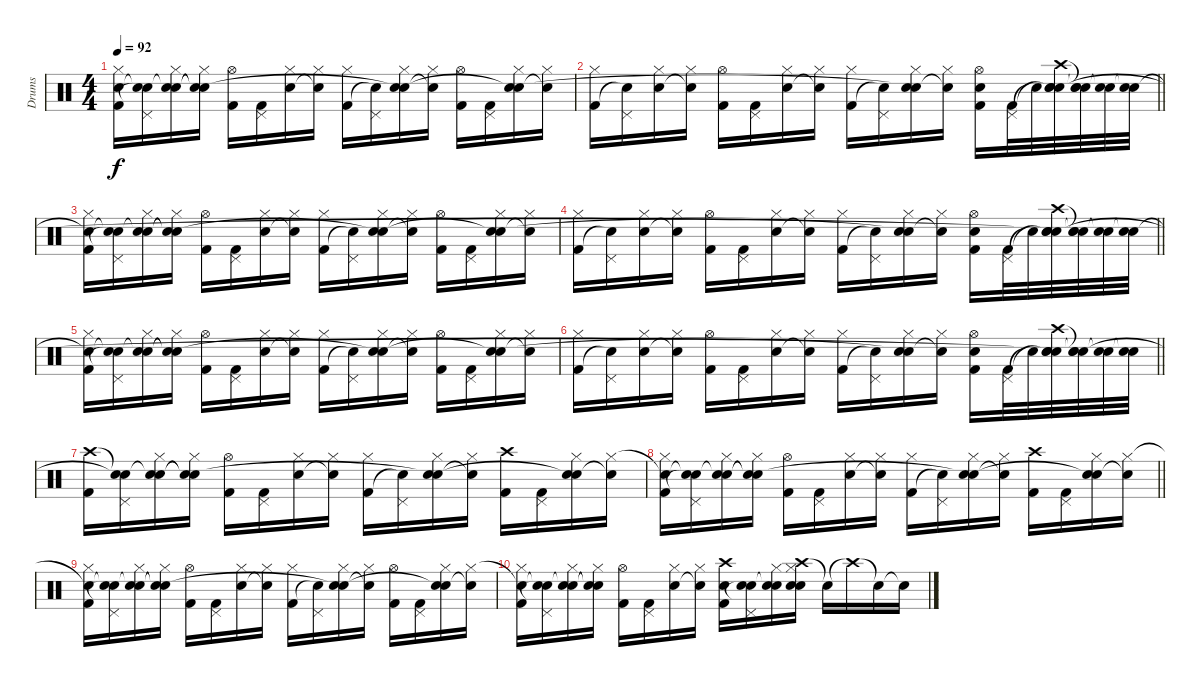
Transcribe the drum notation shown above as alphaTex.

\track ("Drums" "Drums") {instrument percussion}
\staff {score}
\articulation defaults
\ts (4 4)
\tempo 92
\clef neutral
\ks c
("Snare (hit)"{t} "Hi-Hat (closed)" "Kick (hit) 2").16{dy f} ("Snare (hit)"{t} "Pedal Hi-Hat (hit)" "Snare (hit)"{t}).16 ("Snare (hit)"{t} "Hi-Hat (closed)" "Electric Snare (hit)").16 ("Snare (hit)"{t} "Hi-Hat (closed)" "Snare (hit)"{t}).16 ("Hi-Hat (open)" "Kick (hit) 2").16 ("Pedal Hi-Hat (hit)" "Kick (hit) 2").16 ("Hi-Hat (closed)" "Electric Snare (hit)").16 ("Hi-Hat (closed)" "Snare (hit)"{t}).16 ("Hi-Hat (closed)" "Kick (hit) 2").16 ("Pedal Hi-Hat (hit)" "Snare (hit)"{t}).16 ("Hi-Hat (closed)" "Electric Snare (hit)" "Snare (hit)"{t}).16 ("Hi-Hat (closed)" "Snare (hit)"{t}).16 ("Hi-Hat (open)" "Kick (hit) 2").16 ("Pedal Hi-Hat (hit)" "Kick (hit) 2").16 ("Hi-Hat (closed)" "Electric Snare (hit)" "Snare (hit)"{t}).16 ("Hi-Hat (closed)" "Snare (hit)"{t}).16 |
\barLineRight lightlight
("Hi-Hat (closed)" "Kick (hit) 2").16 ("Pedal Hi-Hat (hit)" "Snare (hit)"{t}).16 ("Hi-Hat (closed)" "Electric Snare (hit)").16 ("Hi-Hat (closed)" "Snare (hit)"{t}).16 ("Hi-Hat (open)" "Kick (hit) 2").16 ("Pedal Hi-Hat (hit)" "Kick (hit) 2").16 ("Hi-Hat (closed)" "Electric Snare (hit)").16 ("Hi-Hat (closed)" "Snare (hit)"{t}).16 ("Hi-Hat (closed)" "Kick (hit) 2").16 ("Pedal Hi-Hat (hit)" "Snare (hit)"{t}).16 ("Hi-Hat (closed)" "Electric Snare (hit)" "Snare (hit)"{t}).16 ("Hi-Hat (closed)" "Snare (hit)"{t}).16 ("Hi-Hat (open)" "Electric Snare (hit)" "Kick (hit) 2").16 ("Pedal Hi-Hat (hit)" "Kick (hit) 2").32 "Snare (hit)"{t}.32 ("Crash high (hit)" "Snare (hit)"{t} "Electric Snare (hit)" "Snare (hit)").32 ("Snare (hit)"{t} "Electric Snare (hit)" "Snare (hit)"{t}).32 ("Snare (hit)"{t} "Electric Snare (hit)").32 ("Snare (hit)"{t} "Electric Snare (hit)").32 |
("Snare (hit)"{t} "Hi-Hat (closed)" "Kick (hit) 2").16 ("Snare (hit)"{t} "Pedal Hi-Hat (hit)" "Snare (hit)"{t}).16 ("Snare (hit)"{t} "Hi-Hat (closed)" "Electric Snare (hit)").16 ("Snare (hit)"{t} "Hi-Hat (closed)" "Snare (hit)"{t}).16 ("Hi-Hat (open)" "Kick (hit) 2").16 ("Pedal Hi-Hat (hit)" "Kick (hit) 2").16 ("Hi-Hat (closed)" "Electric Snare (hit)").16 ("Hi-Hat (closed)" "Snare (hit)"{t}).16 ("Hi-Hat (closed)" "Kick (hit) 2").16 ("Pedal Hi-Hat (hit)" "Snare (hit)"{t}).16 ("Hi-Hat (closed)" "Electric Snare (hit)" "Snare (hit)"{t}).16 ("Hi-Hat (closed)" "Snare (hit)"{t}).16 ("Hi-Hat (open)" "Kick (hit) 2").16 ("Pedal Hi-Hat (hit)" "Kick (hit) 2").16 ("Hi-Hat (closed)" "Electric Snare (hit)" "Snare (hit)"{t}).16 ("Hi-Hat (closed)" "Snare (hit)"{t}).16 |
\barLineRight lightlight
("Hi-Hat (closed)" "Kick (hit) 2").16 ("Pedal Hi-Hat (hit)" "Snare (hit)"{t}).16 ("Hi-Hat (closed)" "Electric Snare (hit)").16 ("Hi-Hat (closed)" "Snare (hit)"{t}).16 ("Hi-Hat (open)" "Kick (hit) 2").16 ("Pedal Hi-Hat (hit)" "Kick (hit) 2").16 ("Hi-Hat (closed)" "Electric Snare (hit)").16 ("Hi-Hat (closed)" "Snare (hit)"{t}).16 ("Hi-Hat (closed)" "Kick (hit) 2").16 ("Pedal Hi-Hat (hit)" "Snare (hit)"{t}).16 ("Hi-Hat (closed)" "Electric Snare (hit)" "Snare (hit)"{t}).16 ("Hi-Hat (closed)" "Snare (hit)"{t}).16 ("Hi-Hat (open)" "Electric Snare (hit)" "Kick (hit) 2").16 ("Pedal Hi-Hat (hit)" "Kick (hit) 2").32 "Snare (hit)"{t}.32 ("Crash high (hit)" "Snare (hit)"{t} "Electric Snare (hit)" "Snare (hit)"{t}).32 ("Snare (hit)"{t} "Electric Snare (hit)" "Snare (hit)"{t}).32 ("Snare (hit)"{t} "Electric Snare (hit)").32 ("Snare (hit)"{t} "Electric Snare (hit)").32 |
("Snare (hit)"{t} "Hi-Hat (closed)" "Kick (hit) 2").16 ("Snare (hit)"{t} "Pedal Hi-Hat (hit)" "Snare (hit)"{t}).16 ("Snare (hit)"{t} "Hi-Hat (closed)" "Electric Snare (hit)").16 ("Snare (hit)"{t} "Hi-Hat (closed)" "Snare (hit)"{t}).16 ("Hi-Hat (open)" "Kick (hit) 2").16 ("Pedal Hi-Hat (hit)" "Kick (hit) 2").16 ("Hi-Hat (closed)" "Electric Snare (hit)").16 ("Hi-Hat (closed)" "Snare (hit)"{t}).16 ("Hi-Hat (closed)" "Kick (hit) 2").16 ("Pedal Hi-Hat (hit)" "Snare (hit)"{t}).16 ("Hi-Hat (closed)" "Electric Snare (hit)" "Snare (hit)"{t}).16 ("Hi-Hat (closed)" "Snare (hit)"{t}).16 ("Hi-Hat (open)" "Kick (hit) 2").16 ("Pedal Hi-Hat (hit)" "Kick (hit) 2").16 ("Hi-Hat (closed)" "Electric Snare (hit)" "Snare (hit)"{t}).16 ("Hi-Hat (closed)" "Snare (hit)"{t}).16 |
\barLineRight lightlight
("Hi-Hat (closed)" "Kick (hit) 2").16 ("Pedal Hi-Hat (hit)" "Snare (hit)"{t}).16 ("Hi-Hat (closed)" "Electric Snare (hit)").16 ("Hi-Hat (closed)" "Snare (hit)"{t}).16 ("Hi-Hat (open)" "Kick (hit) 2").16 ("Pedal Hi-Hat (hit)" "Kick (hit) 2").16 ("Hi-Hat (closed)" "Electric Snare (hit)").16 ("Hi-Hat (closed)" "Snare (hit)"{t}).16 ("Hi-Hat (closed)" "Kick (hit) 2").16 ("Pedal Hi-Hat (hit)" "Snare (hit)"{t}).16 ("Hi-Hat (closed)" "Electric Snare (hit)" "Snare (hit)"{t}).16 ("Hi-Hat (closed)" "Snare (hit)"{t}).16 ("Hi-Hat (open)" "Electric Snare (hit)" "Kick (hit) 2").16 ("Pedal Hi-Hat (hit)" "Kick (hit) 2").32 "Snare (hit)"{t}.32 ("Crash high (hit)" "Snare (hit)"{t} "Electric Snare (hit)" "Snare (hit)"{t}).32 ("Snare (hit)"{t} "Electric Snare (hit)" "Snare (hit)"{t}).32 ("Snare (hit)"{t} "Electric Snare (hit)").32 ("Snare (hit)"{t} "Electric Snare (hit)").32 |
("Crash high (hit)" "Kick (hit) 2").16 ("Snare (hit)"{t} "Pedal Hi-Hat (hit)" "Snare (hit)"{t}).16 ("Snare (hit)"{t} "Hi-Hat (closed)" "Electric Snare (hit)").16 ("Snare (hit)"{t} "Hi-Hat (closed)" "Snare (hit)"{t}).16 ("Hi-Hat (open)" "Kick (hit) 2").16 ("Pedal Hi-Hat (hit)" "Kick (hit) 2").16 ("Hi-Hat (closed)" "Electric Snare (hit)").16 ("Hi-Hat (closed)" "Snare (hit)"{t}).16 ("Hi-Hat (closed)" "Kick (hit) 2").16 ("Pedal Hi-Hat (hit)" "Snare (hit)"{t}).16 ("Hi-Hat (closed)" "Electric Snare (hit)" "Snare (hit)"{t}).16 ("Hi-Hat (closed)" "Snare (hit)"{t}).16 ("Crash high (hit)" "Kick (hit) 2").16 ("Pedal Hi-Hat (hit)" "Kick (hit) 2").16 ("Hi-Hat (closed)" "Electric Snare (hit)" "Snare (hit)"{t}).16 ("Hi-Hat (closed)" "Snare (hit)"{t}).16 |
\barLineRight lightlight
("Snare (hit)"{t} "Hi-Hat (closed)" "Kick (hit) 2").16 ("Snare (hit)"{t} "Pedal Hi-Hat (hit)" "Snare (hit)"{t}).16 ("Snare (hit)"{t} "Hi-Hat (closed)" "Electric Snare (hit)").16 ("Snare (hit)"{t} "Hi-Hat (closed)" "Snare (hit)"{t}).16 ("Hi-Hat (open)" "Kick (hit) 2").16 ("Pedal Hi-Hat (hit)" "Kick (hit) 2").16 ("Hi-Hat (closed)" "Electric Snare (hit)").16 ("Hi-Hat (closed)" "Snare (hit)"{t}).16 ("Hi-Hat (closed)" "Kick (hit) 2").16 ("Pedal Hi-Hat (hit)" "Snare (hit)"{t}).16 ("Hi-Hat (closed)" "Electric Snare (hit)" "Snare (hit)"{t}).16 ("Hi-Hat (closed)" "Snare (hit)"{t}).16 ("Crash high (hit)" "Kick (hit) 2").16 ("Pedal Hi-Hat (hit)" "Kick (hit) 2").16 ("Hi-Hat (closed)" "Electric Snare (hit)" "Snare (hit)"{t}).16 ("Hi-Hat (closed)" "Snare (hit)"{t}).16 |
("Snare (hit)"{t} "Hi-Hat (closed)" "Kick (hit) 2").16 ("Snare (hit)"{t} "Pedal Hi-Hat (hit)" "Snare (hit)"{t}).16 ("Snare (hit)"{t} "Hi-Hat (closed)" "Electric Snare (hit)").16 ("Snare (hit)"{t} "Hi-Hat (closed)" "Snare (hit)"{t}).16 ("Hi-Hat (open)" "Kick (hit) 2").16 ("Pedal Hi-Hat (hit)" "Kick (hit) 2").16 ("Hi-Hat (closed)" "Electric Snare (hit)").16 ("Hi-Hat (closed)" "Snare (hit)"{t}).16 ("Hi-Hat (closed)" "Kick (hit) 2").16 ("Pedal Hi-Hat (hit)" "Snare (hit)"{t}).16 ("Hi-Hat (closed)" "Electric Snare (hit)" "Snare (hit)"{t}).16 ("Hi-Hat (closed)" "Snare (hit)"{t}).16 ("Hi-Hat (open)" "Kick (hit) 2").16 ("Pedal Hi-Hat (hit)" "Kick (hit) 2").16 ("Hi-Hat (closed)" "Electric Snare (hit)" "Snare (hit)"{t}).16 ("Hi-Hat (closed)" "Snare (hit)"{t}).16 |
("Snare (hit)"{t} "Hi-Hat (closed)" "Kick (hit) 2").16 ("Snare (hit)"{t} "Pedal Hi-Hat (hit)" "Snare (hit)"{t}).16 ("Snare (hit)"{t} "Hi-Hat (closed)" "Electric Snare (hit)").16 ("Snare (hit)"{t} "Hi-Hat (closed)" "Snare (hit)"{t}).16 ("Hi-Hat (open)" "Kick (hit) 2").16 ("Pedal Hi-Hat (hit)" "Kick (hit) 2").16 ("Hi-Hat (closed)" "Electric Snare (hit)").16 ("Hi-Hat (closed)" "Snare (hit)"{t}).16 ("Crash high (hit)" "Electric Snare (hit)" "Kick (hit) 2").16 ("Pedal Hi-Hat (hit)" "Electric Snare (hit)" "Snare (hit)"{t}).16 ("Hi-Hat (closed)" "Electric Snare (hit)" "Snare (hit)"{t}).16 ("Crash high (hit)" "Hi-Hat (closed)" "Electric Snare (hit)" "Snare (hit)").16 "Snare (hit)"{t}.16 "Crash high (hit)"{t}.16 "Snare (hit)"{t}.16 "Snare (hit)"{t}.16
